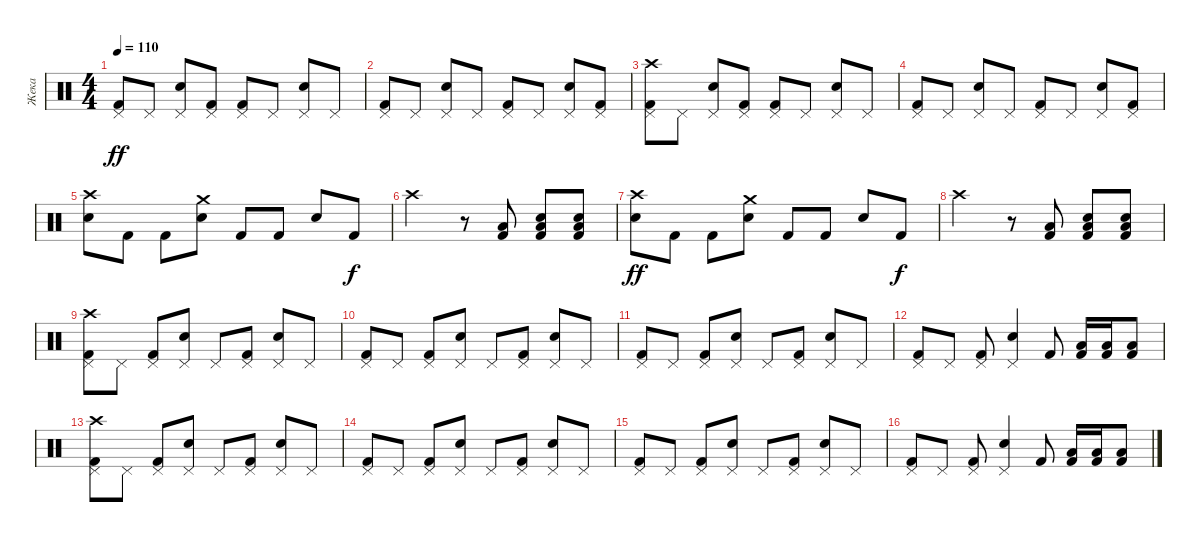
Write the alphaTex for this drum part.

\track ("Жека" "Жека") {instrument percussion}
\staff {score}
\articulation defaults
\ts (4 4)
\tempo 110
\clef neutral
\ks c
("Pedal Hi-Hat (hit)" "Kick (hit) 2").8{dy ff} "Pedal Hi-Hat (hit)".8 ("Pedal Hi-Hat (hit)" "Snare (hit) 2").8 ("Pedal Hi-Hat (hit)" "Kick (hit) 2").8 ("Pedal Hi-Hat (hit)" "Kick (hit) 2").8 "Pedal Hi-Hat (hit)".8 ("Pedal Hi-Hat (hit)" "Snare (hit) 2").8 "Pedal Hi-Hat (hit)".8 |
("Pedal Hi-Hat (hit)" "Kick (hit) 2").8 "Pedal Hi-Hat (hit)".8 ("Pedal Hi-Hat (hit)" "Snare (hit) 2").8 "Pedal Hi-Hat (hit)".8 ("Pedal Hi-Hat (hit)" "Kick (hit) 2").8 "Pedal Hi-Hat (hit)".8 ("Pedal Hi-Hat (hit)" "Snare (hit) 2").8 ("Pedal Hi-Hat (hit)" "Kick (hit) 2").8 |
("Pedal Hi-Hat (hit)" "Kick (hit) 2" "Crash high (hit)").8 "Pedal Hi-Hat (hit)".8 ("Pedal Hi-Hat (hit)" "Snare (hit) 2").8 ("Pedal Hi-Hat (hit)" "Kick (hit) 2").8 ("Pedal Hi-Hat (hit)" "Kick (hit) 2").8 "Pedal Hi-Hat (hit)".8 ("Pedal Hi-Hat (hit)" "Snare (hit) 2").8 "Pedal Hi-Hat (hit)".8 |
("Pedal Hi-Hat (hit)" "Kick (hit) 2").8 "Pedal Hi-Hat (hit)".8 ("Pedal Hi-Hat (hit)" "Snare (hit) 2").8 "Pedal Hi-Hat (hit)".8 ("Pedal Hi-Hat (hit)" "Kick (hit) 2").8 "Pedal Hi-Hat (hit)".8 ("Pedal Hi-Hat (hit)" "Snare (hit) 2").8 ("Pedal Hi-Hat (hit)" "Kick (hit) 2").8 |
("Snare (hit) 2" "Crash high (hit)").8 "Kick (hit) 2".8 "Kick (hit) 2".8 ("Snare (hit) 2" "Crash medium (hit)").8 "Kick (hit) 2".8 "Kick (hit) 2".8 "Snare (hit) 2".8 "Kick (hit) 2".8{dy f} |
"Crash high (hit)".2 r.8 ("Low Floor Tom (hit)" "Kick (hit) 2").8 ("Low Tom (hit)" "Kick (hit) 2" "Snare (hit) 2").8 ("Low Tom (hit)" "Kick (hit) 2" "Snare (hit) 2").8 |
("Snare (hit) 2" "Crash high (hit)").8{dy ff} "Kick (hit) 2".8 "Kick (hit) 2".8 ("Snare (hit) 2" "Crash medium (hit)").8 "Kick (hit) 2".8 "Kick (hit) 2".8 "Snare (hit) 2".8 "Kick (hit) 2".8{dy f} |
"Crash high (hit)".2 r.8 ("Low Floor Tom (hit)" "Kick (hit) 2").8 ("Low Tom (hit)" "Kick (hit) 2" "Snare (hit) 2").8 ("Low Tom (hit)" "Kick (hit) 2" "Snare (hit) 2").8 |
("Pedal Hi-Hat (hit)" "Kick (hit) 2" "Crash high (hit)").8 "Pedal Hi-Hat (hit)".8 ("Pedal Hi-Hat (hit)" "Kick (hit) 2").8 ("Pedal Hi-Hat (hit)" "Snare (hit) 2").8 "Pedal Hi-Hat (hit)".8 ("Pedal Hi-Hat (hit)" "Kick (hit) 2").8 ("Pedal Hi-Hat (hit)" "Snare (hit) 2").8 "Pedal Hi-Hat (hit)".8 |
("Pedal Hi-Hat (hit)" "Kick (hit) 2").8 "Pedal Hi-Hat (hit)".8 ("Pedal Hi-Hat (hit)" "Kick (hit) 2").8 ("Pedal Hi-Hat (hit)" "Snare (hit) 2").8 "Pedal Hi-Hat (hit)".8 ("Pedal Hi-Hat (hit)" "Kick (hit) 2").8 ("Pedal Hi-Hat (hit)" "Snare (hit) 2").8 "Pedal Hi-Hat (hit)".8 |
("Pedal Hi-Hat (hit)" "Kick (hit) 2").8 "Pedal Hi-Hat (hit)".8 ("Pedal Hi-Hat (hit)" "Kick (hit) 2").8 ("Pedal Hi-Hat (hit)" "Snare (hit) 2").8 "Pedal Hi-Hat (hit)".8 ("Pedal Hi-Hat (hit)" "Kick (hit) 2").8 ("Pedal Hi-Hat (hit)" "Snare (hit) 2").8 "Pedal Hi-Hat (hit)".8 |
("Pedal Hi-Hat (hit)" "Kick (hit) 2").8 "Pedal Hi-Hat (hit)".8 ("Pedal Hi-Hat (hit)" "Kick (hit) 2").8 ("Pedal Hi-Hat (hit)" "Snare (hit) 2").4 "Kick (hit) 2".8 ("Low Tom (hit)" "Kick (hit) 2").16 ("Low Tom (hit)" "Kick (hit) 2").16 ("Low Floor Tom (hit)" "Kick (hit) 2").8 |
("Pedal Hi-Hat (hit)" "Kick (hit) 2" "Crash high (hit)").8 "Pedal Hi-Hat (hit)".8 ("Pedal Hi-Hat (hit)" "Kick (hit) 2").8 ("Pedal Hi-Hat (hit)" "Snare (hit) 2").8 "Pedal Hi-Hat (hit)".8 ("Pedal Hi-Hat (hit)" "Kick (hit) 2").8 ("Pedal Hi-Hat (hit)" "Snare (hit) 2").8 "Pedal Hi-Hat (hit)".8 |
("Pedal Hi-Hat (hit)" "Kick (hit) 2").8 "Pedal Hi-Hat (hit)".8 ("Pedal Hi-Hat (hit)" "Kick (hit) 2").8 ("Pedal Hi-Hat (hit)" "Snare (hit) 2").8 "Pedal Hi-Hat (hit)".8 ("Pedal Hi-Hat (hit)" "Kick (hit) 2").8 ("Pedal Hi-Hat (hit)" "Snare (hit) 2").8 "Pedal Hi-Hat (hit)".8 |
("Pedal Hi-Hat (hit)" "Kick (hit) 2").8 "Pedal Hi-Hat (hit)".8 ("Pedal Hi-Hat (hit)" "Kick (hit) 2").8 ("Pedal Hi-Hat (hit)" "Snare (hit) 2").8 "Pedal Hi-Hat (hit)".8 ("Pedal Hi-Hat (hit)" "Kick (hit) 2").8 ("Pedal Hi-Hat (hit)" "Snare (hit) 2").8 "Pedal Hi-Hat (hit)".8 |
("Pedal Hi-Hat (hit)" "Kick (hit) 2").8 "Pedal Hi-Hat (hit)".8 ("Pedal Hi-Hat (hit)" "Kick (hit) 2").8 ("Pedal Hi-Hat (hit)" "Snare (hit) 2").4 "Kick (hit) 2".8 ("Low Tom (hit)" "Kick (hit) 2").16 ("Low Tom (hit)" "Kick (hit) 2").16 ("Low Floor Tom (hit)" "Kick (hit) 2").8
